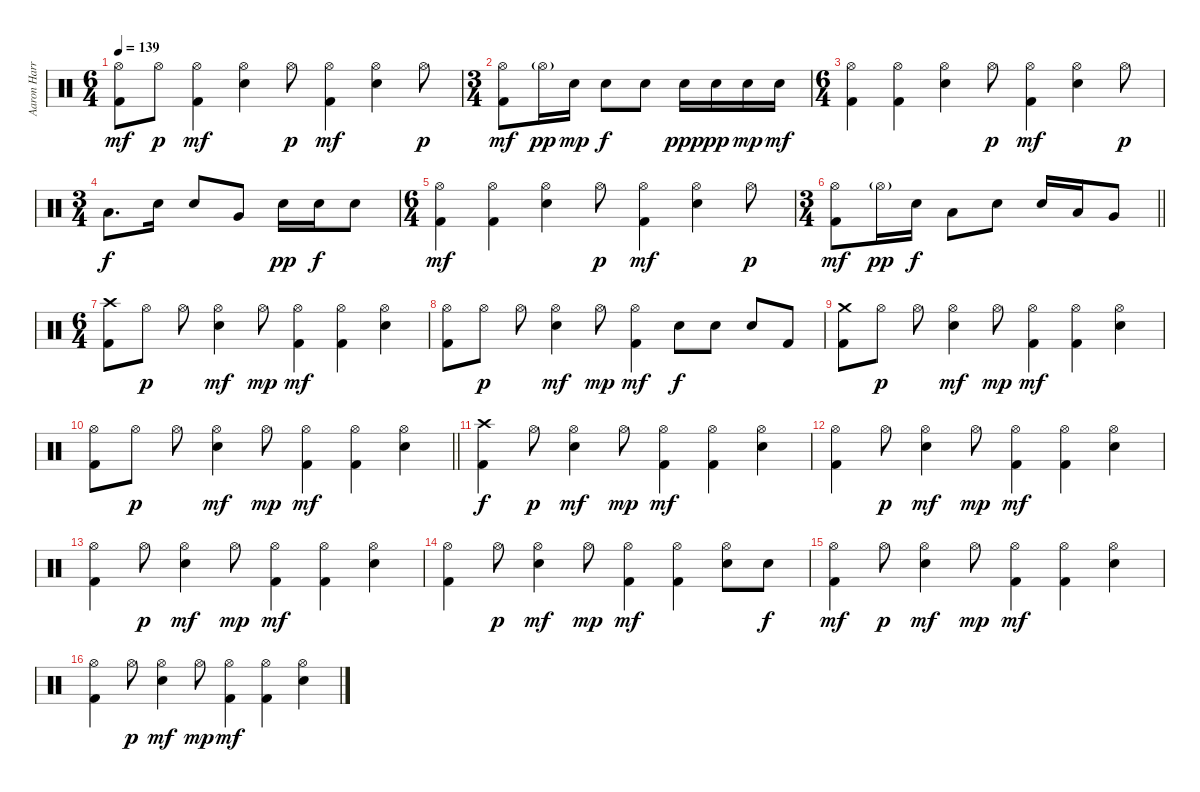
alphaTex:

\track ("Aaron Harris" "Aaron Harr") {instrument percussion}
\staff {score}
\articulation defaults
\ts (6 4)
\tempo 139
\clef neutral
\ks c
("Hi-Hat (open)" "Kick (hit) 2").8{dy mf} "Hi-Hat (open)".8{dy p} ("Hi-Hat (open)" "Kick (hit) 2").4{dy mf} ("Hi-Hat (open)" "Electric Snare (hit)").4 "Hi-Hat (open)".8{dy p} ("Hi-Hat (open)" "Kick (hit) 2").4{dy mf} ("Hi-Hat (open)" "Electric Snare (hit)").4 "Hi-Hat (open)".8{dy p} |
\ts (3 4)
("Hi-Hat (open)" "Kick (hit) 2").8{dy mf} "Hi-Hat (open)"{g}.16{dy pp} "Electric Snare (hit)".16{dy mp} "Electric Snare (hit)".8{dy f} "Electric Snare (hit)".8 "Electric Snare (hit)".16{dy ppp} "Electric Snare (hit)".16{dy pp} "Electric Snare (hit)".16{dy mp} "Electric Snare (hit)".16{dy mf} |
\ts (6 4)
("Hi-Hat (open)" "Kick (hit) 2").4 ("Hi-Hat (open)" "Kick (hit) 2").4 ("Hi-Hat (open)" "Electric Snare (hit)").4 "Hi-Hat (open)".8{dy p} ("Hi-Hat (open)" "Kick (hit) 2").4{dy mf} ("Hi-Hat (open)" "Electric Snare (hit)").4 "Hi-Hat (open)".8{dy p} |
\ts (3 4)
"Low Tom (hit)".8{d dy f} "Electric Snare (hit)".16 "Electric Snare (hit)".8 "Very Low Tom (hit)".8 "Electric Snare (hit)".16{dy pp} "Electric Snare (hit)".16{dy f} "Electric Snare (hit)".8 |
\ts (6 4)
("Hi-Hat (open)" "Kick (hit) 2").4{dy mf} ("Hi-Hat (open)" "Kick (hit) 2").4 ("Hi-Hat (open)" "Electric Snare (hit)").4 "Hi-Hat (open)".8{dy p} ("Hi-Hat (open)" "Kick (hit) 2").4{dy mf} ("Hi-Hat (open)" "Electric Snare (hit)").4 "Hi-Hat (open)".8{dy p} |
\ts (3 4)
\barLineRight lightlight
("Hi-Hat (open)" "Kick (hit) 2").8{dy mf} "Hi-Hat (open)"{g}.16{dy pp} "Electric Snare (hit)".16{dy f} "Low Tom (hit)".8 "Electric Snare (hit)".8 "Electric Snare (hit)".16 "Low Tom (hit)".16 "Very Low Tom (hit)".8 |
\ts (6 4)
\section ("" "")
("Crash high (hit)" "Kick (hit) 2").8 "Hi-Hat (open)".8{dy p} "Hi-Hat (open)".8 ("Hi-Hat (open)" "Electric Snare (hit)").4{dy mf} "Hi-Hat (open)".8{dy mp} ("Hi-Hat (open)" "Kick (hit) 2").4{dy mf} ("Hi-Hat (open)" "Kick (hit) 2").4 ("Hi-Hat (open)" "Electric Snare (hit)").4 |
("Hi-Hat (open)" "Kick (hit) 2").8 "Hi-Hat (open)".8{dy p} "Hi-Hat (open)".8 ("Hi-Hat (open)" "Electric Snare (hit)").4{dy mf} "Hi-Hat (open)".8{dy mp} ("Hi-Hat (open)" "Kick (hit) 2").4{dy mf} "Electric Snare (hit)".8{dy f} "Electric Snare (hit)".8 "Electric Snare (hit)".8 "Kick (hit) 2".8 |
("Crash medium (hit)" "Kick (hit) 2").8 "Hi-Hat (open)".8{dy p} "Hi-Hat (open)".8 ("Hi-Hat (open)" "Electric Snare (hit)").4{dy mf} "Hi-Hat (open)".8{dy mp} ("Hi-Hat (open)" "Kick (hit) 2").4{dy mf} ("Hi-Hat (open)" "Kick (hit) 2").4 ("Hi-Hat (open)" "Electric Snare (hit)").4 |
\barLineRight lightlight
("Hi-Hat (open)" "Kick (hit) 2").8 "Hi-Hat (open)".8{dy p} "Hi-Hat (open)".8 ("Hi-Hat (open)" "Electric Snare (hit)").4{dy mf} "Hi-Hat (open)".8{dy mp} ("Hi-Hat (open)" "Kick (hit) 2").4{dy mf} ("Hi-Hat (open)" "Kick (hit) 2").4 ("Hi-Hat (open)" "Electric Snare (hit)").4 |
\section ("" "")
("Crash high (hit)" "Kick (hit) 2").4{dy f} "Hi-Hat (open)".8{dy p} ("Hi-Hat (open)" "Electric Snare (hit)").4{dy mf} "Hi-Hat (open)".8{dy mp} ("Hi-Hat (open)" "Kick (hit) 2").4{dy mf} ("Hi-Hat (open)" "Kick (hit) 2").4 ("Hi-Hat (open)" "Electric Snare (hit)").4 |
("Hi-Hat (open)" "Kick (hit) 2").4 "Hi-Hat (open)".8{dy p} ("Hi-Hat (open)" "Electric Snare (hit)").4{dy mf} "Hi-Hat (open)".8{dy mp} ("Hi-Hat (open)" "Kick (hit) 2").4{dy mf} ("Hi-Hat (open)" "Kick (hit) 2").4 ("Hi-Hat (open)" "Electric Snare (hit)").4 |
("Hi-Hat (open)" "Kick (hit) 2").4 "Hi-Hat (open)".8{dy p} ("Hi-Hat (open)" "Electric Snare (hit)").4{dy mf} "Hi-Hat (open)".8{dy mp} ("Hi-Hat (open)" "Kick (hit) 2").4{dy mf} ("Hi-Hat (open)" "Kick (hit) 2").4 ("Hi-Hat (open)" "Electric Snare (hit)").4 |
("Hi-Hat (open)" "Kick (hit) 2").4 "Hi-Hat (open)".8{dy p} ("Hi-Hat (open)" "Electric Snare (hit)").4{dy mf} "Hi-Hat (open)".8{dy mp} ("Hi-Hat (open)" "Kick (hit) 2").4{dy mf} ("Hi-Hat (open)" "Kick (hit) 2").4 ("Hi-Hat (open)" "Electric Snare (hit)").8 "Electric Snare (hit)".8{dy f} |
("Hi-Hat (open)" "Kick (hit) 2").4{dy mf} "Hi-Hat (open)".8{dy p} ("Hi-Hat (open)" "Electric Snare (hit)").4{dy mf} "Hi-Hat (open)".8{dy mp} ("Hi-Hat (open)" "Kick (hit) 2").4{dy mf} ("Hi-Hat (open)" "Kick (hit) 2").4 ("Hi-Hat (open)" "Electric Snare (hit)").4 |
("Hi-Hat (open)" "Kick (hit) 2").4 "Hi-Hat (open)".8{dy p} ("Hi-Hat (open)" "Electric Snare (hit)").4{dy mf} "Hi-Hat (open)".8{dy mp} ("Hi-Hat (open)" "Kick (hit) 2").4{dy mf} ("Hi-Hat (open)" "Kick (hit) 2").4 ("Hi-Hat (open)" "Electric Snare (hit)").4
